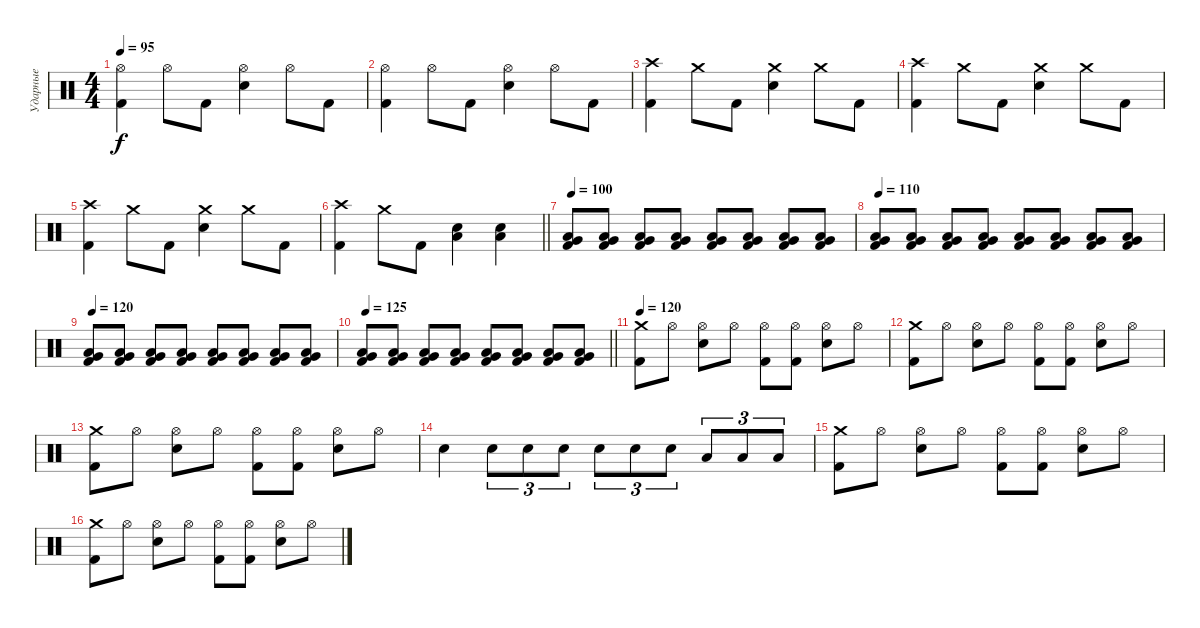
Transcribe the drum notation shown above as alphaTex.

\track ("Ударные" "Ударные") {instrument percussion}
\staff {score}
\articulation defaults
\ts (4 4)
\tempo 95
\clef neutral
\ks c
("Hi-Hat (open)" "Kick (hit) 2").4{dy f} "Hi-Hat (open)".8 "Kick (hit) 2".8 ("Hi-Hat (open)" "Snare (hit) 2").4 "Hi-Hat (open)".8 "Kick (hit) 2".8 |
("Hi-Hat (open)" "Kick (hit) 2").4 "Hi-Hat (open)".8 "Kick (hit) 2".8 ("Hi-Hat (open)" "Snare (hit) 2").4 "Hi-Hat (open)".8 "Kick (hit) 2".8 |
("Crash high (hit)" "Kick (hit) 2").4 "Crash medium (hit)".8 "Kick (hit) 2".8 ("Crash medium (hit)" "Snare (hit) 2").4 "Crash medium (hit)".8 "Kick (hit) 2".8 |
("Crash high (hit)" "Kick (hit) 2").4 "Crash medium (hit)".8 "Kick (hit) 2".8 ("Crash medium (hit)" "Snare (hit) 2").4 "Crash medium (hit)".8 "Kick (hit) 2".8 |
("Crash high (hit)" "Kick (hit) 2").4 "Crash medium (hit)".8 "Kick (hit) 2".8 ("Crash medium (hit)" "Snare (hit) 2").4 "Crash medium (hit)".8 "Kick (hit) 2".8 |
\barLineRight lightlight
("Crash high (hit)" "Kick (hit) 2").4 "Crash medium (hit)".8 "Kick (hit) 2".8 ("Low Tom (hit)" "Snare (hit) 2").4 ("Low Tom (hit)" "Snare (hit) 2").4 |
\tempo 100
("Low Tom (hit)" "Very Low Tom (hit)" "Kick (hit) 2").8 ("Low Tom (hit)" "Very Low Tom (hit)" "Kick (hit) 2").8 ("Low Tom (hit)" "Very Low Tom (hit)" "Kick (hit) 2").8 ("Low Tom (hit)" "Very Low Tom (hit)" "Kick (hit) 2").8 ("Low Tom (hit)" "Very Low Tom (hit)" "Kick (hit) 2").8 ("Low Tom (hit)" "Very Low Tom (hit)" "Kick (hit) 2").8 ("Low Tom (hit)" "Very Low Tom (hit)" "Kick (hit) 2").8 ("Low Tom (hit)" "Very Low Tom (hit)" "Kick (hit) 2").8 |
\tempo 110
("Low Tom (hit)" "Very Low Tom (hit)" "Kick (hit) 2").8 ("Low Tom (hit)" "Very Low Tom (hit)" "Kick (hit) 2").8 ("Low Tom (hit)" "Very Low Tom (hit)" "Kick (hit) 2").8 ("Low Tom (hit)" "Very Low Tom (hit)" "Kick (hit) 2").8 ("Low Tom (hit)" "Very Low Tom (hit)" "Kick (hit) 2").8 ("Low Tom (hit)" "Very Low Tom (hit)" "Kick (hit) 2").8 ("Low Tom (hit)" "Very Low Tom (hit)" "Kick (hit) 2").8 ("Low Tom (hit)" "Very Low Tom (hit)" "Kick (hit) 2").8 |
\tempo 120
("Low Tom (hit)" "Very Low Tom (hit)" "Kick (hit) 2").8 ("Low Tom (hit)" "Very Low Tom (hit)" "Kick (hit) 2").8 ("Low Tom (hit)" "Very Low Tom (hit)" "Kick (hit) 2").8 ("Low Tom (hit)" "Very Low Tom (hit)" "Kick (hit) 2").8 ("Low Tom (hit)" "Very Low Tom (hit)" "Kick (hit) 2").8 ("Low Tom (hit)" "Very Low Tom (hit)" "Kick (hit) 2").8 ("Low Tom (hit)" "Very Low Tom (hit)" "Kick (hit) 2").8 ("Low Tom (hit)" "Very Low Tom (hit)" "Kick (hit) 2").8 |
\tempo 125
\barLineRight lightlight
("Low Tom (hit)" "Very Low Tom (hit)" "Kick (hit) 2").8 ("Low Tom (hit)" "Very Low Tom (hit)" "Kick (hit) 2").8 ("Low Tom (hit)" "Very Low Tom (hit)" "Kick (hit) 2").8 ("Low Tom (hit)" "Very Low Tom (hit)" "Kick (hit) 2").8 ("Low Tom (hit)" "Very Low Tom (hit)" "Kick (hit) 2").8 ("Low Tom (hit)" "Very Low Tom (hit)" "Kick (hit) 2").8 ("Low Tom (hit)" "Very Low Tom (hit)" "Kick (hit) 2").8 ("Low Tom (hit)" "Very Low Tom (hit)" "Kick (hit) 2").8 |
\tempo 120
("Crash medium (hit)" "Kick (hit) 2").8 "Hi-Hat (open)".8 ("Hi-Hat (open)" "Snare (hit) 2").8 "Hi-Hat (open)".8 ("Hi-Hat (open)" "Kick (hit) 2").8 ("Hi-Hat (open)" "Kick (hit) 2").8 ("Hi-Hat (open)" "Snare (hit) 2").8 "Hi-Hat (open)".8 |
("Crash medium (hit)" "Kick (hit) 2").8 "Hi-Hat (open)".8 ("Hi-Hat (open)" "Snare (hit) 2").8 "Hi-Hat (open)".8 ("Hi-Hat (open)" "Kick (hit) 2").8 ("Hi-Hat (open)" "Kick (hit) 2").8 ("Hi-Hat (open)" "Snare (hit) 2").8 "Hi-Hat (open)".8 |
("Crash medium (hit)" "Kick (hit) 2").8 "Hi-Hat (open)".8 ("Hi-Hat (open)" "Snare (hit) 2").8 "Hi-Hat (open)".8 ("Hi-Hat (open)" "Kick (hit) 2").8 ("Hi-Hat (open)" "Kick (hit) 2").8 ("Hi-Hat (open)" "Snare (hit) 2").8 "Hi-Hat (open)".8 |
"Snare (hit) 2".4 "Snare (hit) 2".8{tu (3 2)} "Snare (hit) 2".8{tu (3 2)} "Snare (hit) 2".8{tu (3 2)} "Snare (hit) 2".8{tu (3 2)} "Snare (hit) 2".8{tu (3 2)} "Snare (hit) 2".8{tu (3 2)} "Low Tom (hit)".8{tu (3 2)} "Low Tom (hit)".8{tu (3 2)} "Low Tom (hit)".8{tu (3 2)} |
("Crash medium (hit)" "Kick (hit) 2").8 "Hi-Hat (open)".8 ("Hi-Hat (open)" "Snare (hit) 2").8 "Hi-Hat (open)".8 ("Hi-Hat (open)" "Kick (hit) 2").8 ("Hi-Hat (open)" "Kick (hit) 2").8 ("Hi-Hat (open)" "Snare (hit) 2").8 "Hi-Hat (open)".8 |
("Crash medium (hit)" "Kick (hit) 2").8 "Hi-Hat (open)".8 ("Hi-Hat (open)" "Snare (hit) 2").8 "Hi-Hat (open)".8 ("Hi-Hat (open)" "Kick (hit) 2").8 ("Hi-Hat (open)" "Kick (hit) 2").8 ("Hi-Hat (open)" "Snare (hit) 2").8 "Hi-Hat (open)".8
